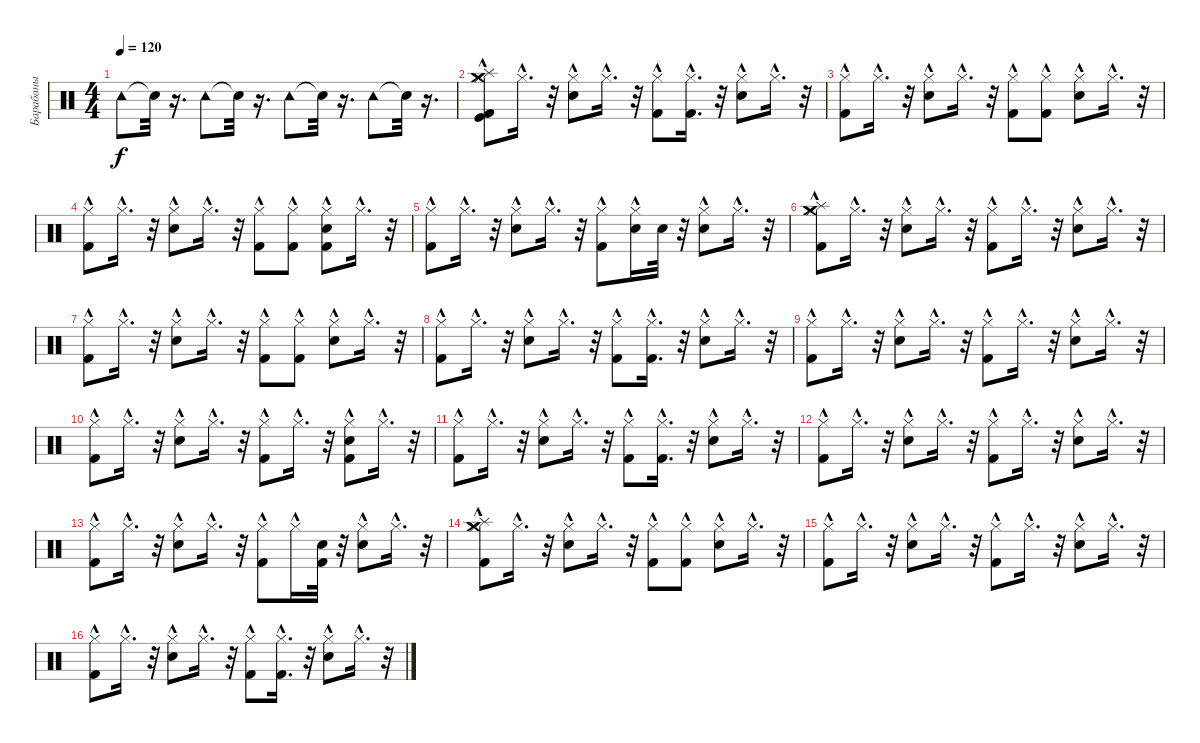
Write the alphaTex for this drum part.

\track ("Барабаны" "Барабаны") {instrument percussion}
\staff {score}
\articulation defaults
\ts (4 4)
\tempo 120
\clef neutral
\ks c "Tambourine (hit)".8{dy f} "Snare (hit)"{t}.32
r.16{d} "Tambourine (hit)".8 "Snare (hit)"{t}.32 r.16{d} "Tambourine (hit)".8 "Snare (hit)"{t}.32 r.16{d} "Tambourine (hit)".8 "Snare (hit)"{t}.32 r.16{d} |
("Kick (hit)" "Splash (hit)" "Crash medium (hit)" "Kick (hit) 2" "Hi-Hat (closed)"{hac}).8 "Hi-Hat (closed)"{hac}.16{d} r.32 ("Electric Snare (hit)" "Hi-Hat (closed)"{hac}).8 "Hi-Hat (closed)"{hac}.16{d} r.32 ("Kick (hit) 2" "Hi-Hat (closed)"{hac}).8 ("Kick (hit) 2"{hac} "Hi-Hat (closed)"{hac}).16{d} r.32 ("Electric Snare (hit)" "Hi-Hat (closed)"{hac}).8 "Hi-Hat (closed)"{hac}.16{d} r.32 |
("Kick (hit) 2" "Hi-Hat (closed)"{hac}).8 "Hi-Hat (closed)"{hac}.16{d} r.32 ("Electric Snare (hit)" "Hi-Hat (closed)"{hac}).8 "Hi-Hat (closed)"{hac}.16{d} r.32 ("Kick (hit) 2" "Hi-Hat (closed)"{hac}).8 ("Kick (hit) 2" "Hi-Hat (closed)"{hac}).8 ("Electric Snare (hit)" "Hi-Hat (closed)"{hac}).8 "Hi-Hat (closed)"{hac}.16{d} r.32 |
("Kick (hit) 2" "Hi-Hat (closed)"{hac}).8 "Hi-Hat (closed)"{hac}.16{d} r.32 ("Electric Snare (hit)" "Hi-Hat (closed)"{hac}).8 "Hi-Hat (closed)"{hac}.16{d} r.32 ("Kick (hit) 2" "Hi-Hat (closed)"{hac}).8 ("Kick (hit) 2" "Hi-Hat (closed)"{hac}).8 ("Kick (hit) 2"{hac} "Electric Snare (hit)" "Hi-Hat (closed)"{hac}).8 "Hi-Hat (closed)"{hac}.16{d} r.32 |
("Kick (hit) 2" "Hi-Hat (closed)"{hac}).8 "Hi-Hat (closed)"{hac}.16{d} r.32 ("Electric Snare (hit)" "Hi-Hat (closed)"{hac}).8 "Hi-Hat (closed)"{hac}.16{d} r.32 ("Kick (hit) 2" "Hi-Hat (closed)"{hac}).8 ("Electric Snare (hit)" "Hi-Hat (closed)"{hac}).16 "Electric Snare (hit)".32 r.32 ("Electric Snare (hit)" "Hi-Hat (closed)"{hac}).8 "Hi-Hat (closed)"{hac}.16{d} r.32 |
("Splash (hit)" "Crash medium (hit)" "Kick (hit) 2" "Hi-Hat (closed)"{hac}).8 "Hi-Hat (closed)"{hac}.16{d} r.32 ("Electric Snare (hit)" "Hi-Hat (closed)"{hac}).8 "Hi-Hat (closed)"{hac}.16{d} r.32 ("Kick (hit) 2" "Hi-Hat (closed)"{hac}).8 "Hi-Hat (closed)"{hac}.16{d} r.32 ("Electric Snare (hit)" "Hi-Hat (closed)"{hac}).8 "Hi-Hat (closed)"{hac}.16{d} r.32 |
("Kick (hit) 2" "Hi-Hat (closed)"{hac}).8 "Hi-Hat (closed)"{hac}.16{d} r.32 ("Electric Snare (hit)" "Hi-Hat (closed)"{hac}).8 "Hi-Hat (closed)"{hac}.16{d} r.32 ("Kick (hit) 2" "Hi-Hat (closed)"{hac}).8 ("Kick (hit) 2" "Hi-Hat (closed)"{hac}).8 ("Electric Snare (hit)" "Hi-Hat (closed)"{hac}).8 "Hi-Hat (closed)"{hac}.16{d} r.32 |
("Kick (hit) 2" "Hi-Hat (closed)"{hac}).8 "Hi-Hat (closed)"{hac}.16{d} r.32 ("Electric Snare (hit)" "Hi-Hat (closed)"{hac}).8 "Hi-Hat (closed)"{hac}.16{d} r.32 ("Kick (hit) 2" "Hi-Hat (closed)"{hac}).8 ("Kick (hit) 2"{hac} "Hi-Hat (closed)"{hac}).16{d} r.32 ("Electric Snare (hit)" "Hi-Hat (closed)"{hac}).8 "Hi-Hat (closed)"{hac}.16{d} r.32 |
("Kick (hit) 2" "Hi-Hat (closed)"{hac}).8 "Hi-Hat (closed)"{hac}.16{d} r.32 ("Electric Snare (hit)" "Hi-Hat (closed)"{hac}).8 "Hi-Hat (closed)"{hac}.16{d} r.32 ("Kick (hit) 2" "Hi-Hat (closed)"{hac}).8 "Hi-Hat (closed)"{hac}.16{d} r.32 ("Electric Snare (hit)" "Hi-Hat (closed)"{hac}).8 "Hi-Hat (closed)"{hac}.16{d} r.32 |
("Kick (hit) 2" "Hi-Hat (closed)"{hac}).8 "Hi-Hat (closed)"{hac}.16{d} r.32 ("Electric Snare (hit)" "Hi-Hat (closed)"{hac}).8 "Hi-Hat (closed)"{hac}.16{d} r.32 ("Kick (hit) 2" "Hi-Hat (closed)"{hac}).8 "Hi-Hat (closed)"{hac}.16{d} r.32 ("Kick (hit) 2"{hac} "Electric Snare (hit)" "Hi-Hat (closed)"{hac}).8 "Hi-Hat (closed)"{hac}.16{d} r.32 |
("Kick (hit) 2" "Hi-Hat (closed)"{hac}).8 "Hi-Hat (closed)"{hac}.16{d} r.32 ("Electric Snare (hit)" "Hi-Hat (closed)"{hac}).8 "Hi-Hat (closed)"{hac}.16{d} r.32 ("Kick (hit) 2" "Hi-Hat (closed)"{hac}).8 ("Kick (hit) 2"{hac} "Hi-Hat (closed)"{hac}).16{d} r.32 ("Electric Snare (hit)" "Hi-Hat (closed)"{hac}).8 "Hi-Hat (closed)"{hac}.16{d} r.32 |
("Kick (hit) 2" "Hi-Hat (closed)"{hac}).8 "Hi-Hat (closed)"{hac}.16{d} r.32 ("Electric Snare (hit)" "Hi-Hat (closed)"{hac}).8 "Hi-Hat (closed)"{hac}.16{d} r.32 ("Kick (hit) 2" "Hi-Hat (closed)"{hac}).8 "Hi-Hat (closed)"{hac}.16{d} r.32 ("Electric Snare (hit)" "Hi-Hat (closed)"{hac}).8 "Hi-Hat (closed)"{hac}.16{d} r.32 |
("Kick (hit) 2" "Hi-Hat (closed)"{hac}).8 "Hi-Hat (closed)"{hac}.16{d} r.32 ("Electric Snare (hit)" "Hi-Hat (closed)"{hac}).8 "Hi-Hat (closed)"{hac}.16{d} r.32 ("Kick (hit) 2" "Hi-Hat (closed)"{hac}).8 "Hi-Hat (closed)"{hac}.16 ("Electric Snare (hit)" "Kick (hit) 2").32 r.32 ("Electric Snare (hit)" "Hi-Hat (closed)"{hac}).8 "Hi-Hat (closed)"{hac}.16{d} r.32 |
("Crash medium (hit)" "Splash (hit)" "Kick (hit) 2" "Hi-Hat (closed)"{hac}).8 "Hi-Hat (closed)"{hac}.16{d} r.32 ("Electric Snare (hit)" "Hi-Hat (closed)"{hac}).8 "Hi-Hat (closed)"{hac}.16{d} r.32 ("Kick (hit) 2" "Hi-Hat (closed)"{hac}).8 ("Kick (hit) 2" "Hi-Hat (closed)"{hac}).8 ("Electric Snare (hit)" "Hi-Hat (closed)"{hac}).8 "Hi-Hat (closed)"{hac}.16{d} r.32 |
("Kick (hit) 2" "Hi-Hat (closed)"{hac}).8 "Hi-Hat (closed)"{hac}.16{d} r.32 ("Electric Snare (hit)" "Hi-Hat (closed)"{hac}).8 "Hi-Hat (closed)"{hac}.16{d} r.32 ("Kick (hit) 2" "Hi-Hat (closed)"{hac}).8 "Hi-Hat (closed)"{hac}.16{d} r.32 ("Electric Snare (hit)" "Hi-Hat (closed)"{hac}).8 "Hi-Hat (closed)"{hac}.16{d} r.32 |
("Kick (hit) 2" "Hi-Hat (closed)"{hac}).8 "Hi-Hat (closed)"{hac}.16{d} r.32 ("Electric Snare (hit)" "Hi-Hat (closed)"{hac}).8 "Hi-Hat (closed)"{hac}.16{d} r.32 ("Kick (hit) 2" "Hi-Hat (closed)"{hac}).8 ("Kick (hit) 2"{hac} "Hi-Hat (closed)"{hac}).16{d} r.32 ("Electric Snare (hit)" "Hi-Hat (closed)"{hac}).8 "Hi-Hat (closed)"{hac}.16{d} r.32
